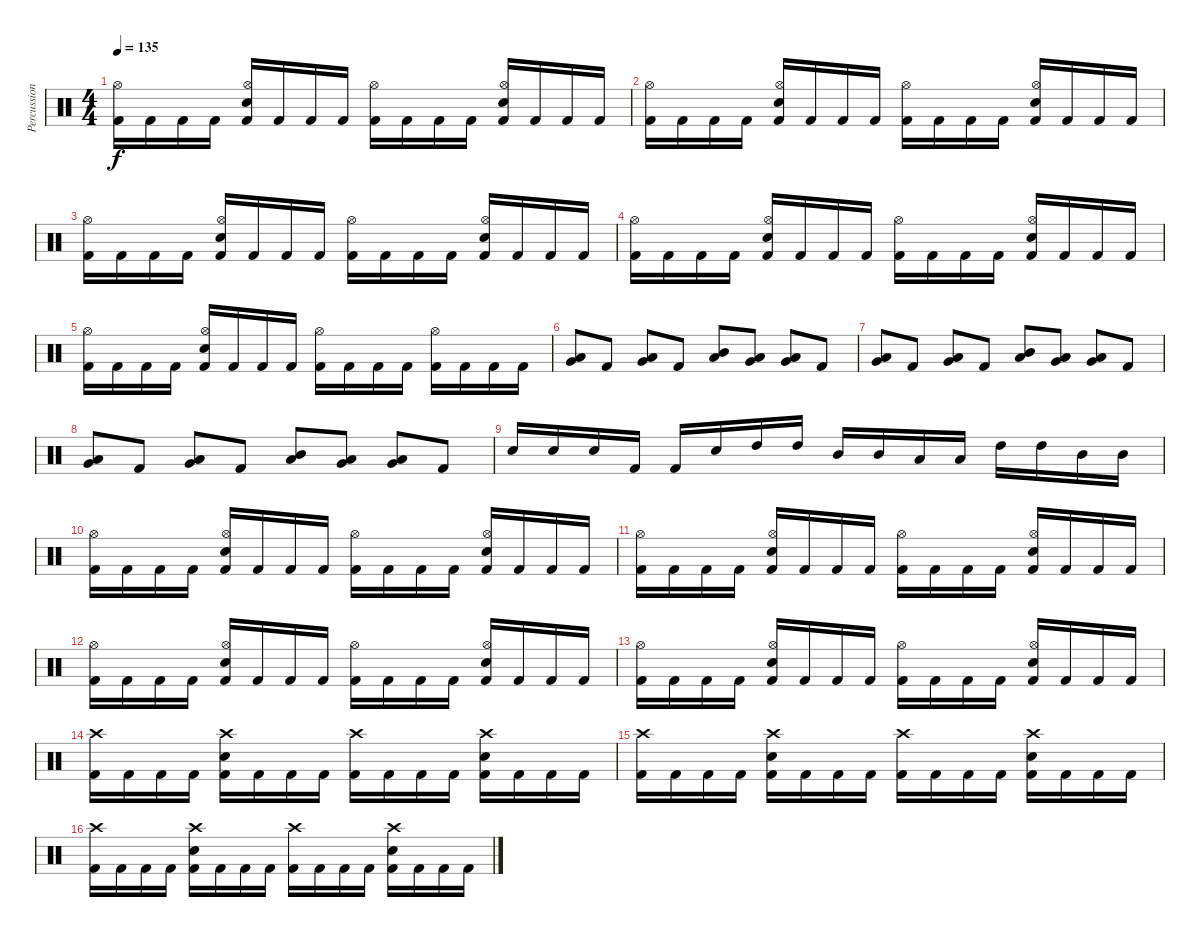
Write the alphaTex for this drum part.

\track ("Percussion" "Percussion") {instrument percussion}
\staff {score}
\articulation defaults
\ts (4 4)
\tempo 135
\clef neutral
\ks c
("Kick (hit) 2" "Hi-Hat (open)").16{dy f} "Kick (hit) 2".16 "Kick (hit) 2".16 "Kick (hit) 2".16 ("Kick (hit) 2" "Hi-Hat (open)" "Electric Snare (hit)").16 "Kick (hit) 2".16 "Kick (hit) 2".16 "Kick (hit) 2".16 ("Kick (hit) 2" "Hi-Hat (open)").16 "Kick (hit) 2".16 "Kick (hit) 2".16 "Kick (hit) 2".16 ("Kick (hit) 2" "Hi-Hat (open)" "Electric Snare (hit)").16 "Kick (hit) 2".16 "Kick (hit) 2".16 "Kick (hit) 2".16 |
("Kick (hit) 2" "Hi-Hat (open)").16 "Kick (hit) 2".16 "Kick (hit) 2".16 "Kick (hit) 2".16 ("Kick (hit) 2" "Hi-Hat (open)" "Electric Snare (hit)").16 "Kick (hit) 2".16 "Kick (hit) 2".16 "Kick (hit) 2".16 ("Kick (hit) 2" "Hi-Hat (open)").16 "Kick (hit) 2".16 "Kick (hit) 2".16 "Kick (hit) 2".16 ("Kick (hit) 2" "Hi-Hat (open)" "Electric Snare (hit)").16 "Kick (hit) 2".16 "Kick (hit) 2".16 "Kick (hit) 2".16 |
("Kick (hit) 2" "Hi-Hat (open)").16 "Kick (hit) 2".16 "Kick (hit) 2".16 "Kick (hit) 2".16 ("Kick (hit) 2" "Hi-Hat (open)" "Electric Snare (hit)").16 "Kick (hit) 2".16 "Kick (hit) 2".16 "Kick (hit) 2".16 ("Kick (hit) 2" "Hi-Hat (open)").16 "Kick (hit) 2".16 "Kick (hit) 2".16 "Kick (hit) 2".16 ("Kick (hit) 2" "Hi-Hat (open)" "Electric Snare (hit)").16 "Kick (hit) 2".16 "Kick (hit) 2".16 "Kick (hit) 2".16 |
("Kick (hit) 2" "Hi-Hat (open)").16 "Kick (hit) 2".16 "Kick (hit) 2".16 "Kick (hit) 2".16 ("Kick (hit) 2" "Hi-Hat (open)" "Electric Snare (hit)").16 "Kick (hit) 2".16 "Kick (hit) 2".16 "Kick (hit) 2".16 ("Kick (hit) 2" "Hi-Hat (open)").16 "Kick (hit) 2".16 "Kick (hit) 2".16 "Kick (hit) 2".16 ("Kick (hit) 2" "Hi-Hat (open)" "Electric Snare (hit)").16 "Kick (hit) 2".16 "Kick (hit) 2".16 "Kick (hit) 2".16 |
("Kick (hit) 2" "Hi-Hat (open)").16 "Kick (hit) 2".16 "Kick (hit) 2".16 "Kick (hit) 2".16 ("Kick (hit) 2" "Hi-Hat (open)" "Electric Snare (hit)").16 "Kick (hit) 2".16 "Kick (hit) 2".16 "Kick (hit) 2".16 ("Kick (hit) 2" "Hi-Hat (open)").16 "Kick (hit) 2".16 "Kick (hit) 2".16 "Kick (hit) 2".16 ("Kick (hit) 2" "Hi-Hat (open)").16 "Kick (hit) 2".16 "Kick (hit) 2".16 "Kick (hit) 2".16 |
("Low Floor Tom (hit)" "Very Low Tom (hit)").8 "Kick (hit) 2".8 ("Low Floor Tom (hit)" "Very Low Tom (hit)").8 "Kick (hit) 2".8 ("Mid Tom (hit)" "Low Tom (hit)").8 ("Low Tom (hit)" "Very Low Tom (hit)").8 ("Low Floor Tom (hit)" "Very Low Tom (hit)").8 "Kick (hit) 2".8 |
("Low Floor Tom (hit)" "Very Low Tom (hit)").8 "Kick (hit) 2".8 ("Low Floor Tom (hit)" "Very Low Tom (hit)").8 "Kick (hit) 2".8 ("Mid Tom (hit)" "Low Tom (hit)").8 ("Low Tom (hit)" "Very Low Tom (hit)").8 ("Low Floor Tom (hit)" "Very Low Tom (hit)").8 "Kick (hit) 2".8 |
("Low Floor Tom (hit)" "Very Low Tom (hit)").8 "Kick (hit) 2".8 ("Low Floor Tom (hit)" "Very Low Tom (hit)").8 "Kick (hit) 2".8 ("Mid Tom (hit)" "Low Tom (hit)").8 ("Low Tom (hit)" "Very Low Tom (hit)").8 ("Low Floor Tom (hit)" "Very Low Tom (hit)").8 "Kick (hit) 2".8 |
"Electric Snare (hit)".16 "Electric Snare (hit)".16 "Electric Snare (hit)".16 "Kick (hit) 2".16 "Kick (hit) 2".16 "Electric Snare (hit)".16 "High Tom (hit)".16 "High Tom (hit)".16 "Mid Tom (hit)".16 "Mid Tom (hit)".16 "Low Tom (hit)".16 "Low Tom (hit)".16 "High Tom (hit)".16 "High Tom (hit)".16 "Mid Tom (hit)".16 "Mid Tom (hit)".16 |
("Kick (hit) 2" "Hi-Hat (open)").16 "Kick (hit) 2".16 "Kick (hit) 2".16 "Kick (hit) 2".16 ("Kick (hit) 2" "Hi-Hat (open)" "Electric Snare (hit)").16 "Kick (hit) 2".16 "Kick (hit) 2".16 "Kick (hit) 2".16 ("Kick (hit) 2" "Hi-Hat (open)").16 "Kick (hit) 2".16 "Kick (hit) 2".16 "Kick (hit) 2".16 ("Kick (hit) 2" "Hi-Hat (open)" "Electric Snare (hit)").16 "Kick (hit) 2".16 "Kick (hit) 2".16 "Kick (hit) 2".16 |
("Kick (hit) 2" "Hi-Hat (open)").16 "Kick (hit) 2".16 "Kick (hit) 2".16 "Kick (hit) 2".16 ("Kick (hit) 2" "Hi-Hat (open)" "Electric Snare (hit)").16 "Kick (hit) 2".16 "Kick (hit) 2".16 "Kick (hit) 2".16 ("Kick (hit) 2" "Hi-Hat (open)").16 "Kick (hit) 2".16 "Kick (hit) 2".16 "Kick (hit) 2".16 ("Kick (hit) 2" "Hi-Hat (open)" "Electric Snare (hit)").16 "Kick (hit) 2".16 "Kick (hit) 2".16 "Kick (hit) 2".16 |
("Kick (hit) 2" "Hi-Hat (open)").16 "Kick (hit) 2".16 "Kick (hit) 2".16 "Kick (hit) 2".16 ("Kick (hit) 2" "Hi-Hat (open)" "Electric Snare (hit)").16 "Kick (hit) 2".16 "Kick (hit) 2".16 "Kick (hit) 2".16 ("Kick (hit) 2" "Hi-Hat (open)").16 "Kick (hit) 2".16 "Kick (hit) 2".16 "Kick (hit) 2".16 ("Kick (hit) 2" "Hi-Hat (open)" "Electric Snare (hit)").16 "Kick (hit) 2".16 "Kick (hit) 2".16 "Kick (hit) 2".16 |
("Kick (hit) 2" "Hi-Hat (open)").16 "Kick (hit) 2".16 "Kick (hit) 2".16 "Kick (hit) 2".16 ("Kick (hit) 2" "Hi-Hat (open)" "Electric Snare (hit)").16 "Kick (hit) 2".16 "Kick (hit) 2".16 "Kick (hit) 2".16 ("Kick (hit) 2" "Hi-Hat (open)").16 "Kick (hit) 2".16 "Kick (hit) 2".16 "Kick (hit) 2".16 ("Kick (hit) 2" "Hi-Hat (open)" "Electric Snare (hit)").16 "Kick (hit) 2".16 "Kick (hit) 2".16 "Kick (hit) 2".16 |
("Kick (hit) 2" "Crash high (hit)").16 "Kick (hit) 2".16 "Kick (hit) 2".16 "Kick (hit) 2".16 ("Kick (hit) 2" "Crash high (hit)" "Electric Snare (hit)").16 "Kick (hit) 2".16 "Kick (hit) 2".16 "Kick (hit) 2".16 ("Kick (hit) 2" "Crash high (hit)").16 "Kick (hit) 2".16 "Kick (hit) 2".16 "Kick (hit) 2".16 ("Kick (hit) 2" "Crash high (hit)" "Electric Snare (hit)").16 "Kick (hit) 2".16 "Kick (hit) 2".16 "Kick (hit) 2".16 |
("Kick (hit) 2" "Crash high (hit)").16 "Kick (hit) 2".16 "Kick (hit) 2".16 "Kick (hit) 2".16 ("Kick (hit) 2" "Crash high (hit)" "Electric Snare (hit)").16 "Kick (hit) 2".16 "Kick (hit) 2".16 "Kick (hit) 2".16 ("Kick (hit) 2" "Crash high (hit)").16 "Kick (hit) 2".16 "Kick (hit) 2".16 "Kick (hit) 2".16 ("Kick (hit) 2" "Crash high (hit)" "Electric Snare (hit)").16 "Kick (hit) 2".16 "Kick (hit) 2".16 "Kick (hit) 2".16 |
("Kick (hit) 2" "Crash high (hit)").16 "Kick (hit) 2".16 "Kick (hit) 2".16 "Kick (hit) 2".16 ("Kick (hit) 2" "Crash high (hit)" "Electric Snare (hit)").16 "Kick (hit) 2".16 "Kick (hit) 2".16 "Kick (hit) 2".16 ("Kick (hit) 2" "Crash high (hit)").16 "Kick (hit) 2".16 "Kick (hit) 2".16 "Kick (hit) 2".16 ("Kick (hit) 2" "Crash high (hit)" "Electric Snare (hit)").16 "Kick (hit) 2".16 "Kick (hit) 2".16 "Kick (hit) 2".16
